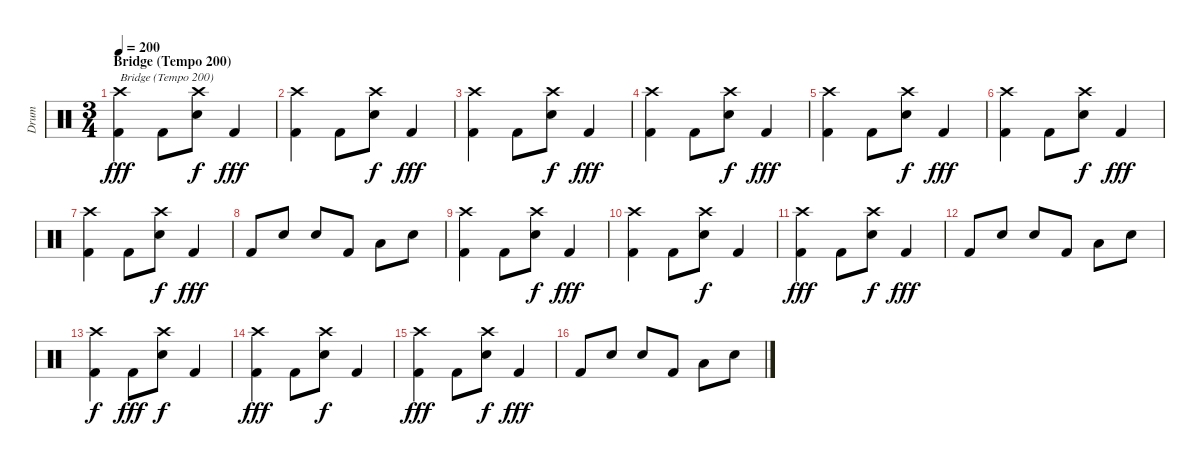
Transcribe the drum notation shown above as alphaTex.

\track ("Drum" "Drum") {instrument percussion}
\staff {score}
\articulation defaults
\ts (3 4)
\section ("" "Bridge (Tempo 200)")
\tempo 200
\clef neutral
\ks c
("Crash high (hit)" "Kick (hit) 2").4{txt "Bridge (Tempo 200)" dy fff} "Kick (hit) 2".8 ("Crash high (hit)" "Snare (hit) 2").8{dy f} "Kick (hit) 2".4{dy fff} |
("Crash high (hit)" "Kick (hit) 2").4 "Kick (hit) 2".8 ("Crash high (hit)" "Snare (hit) 2").8{dy f} "Kick (hit) 2".4{dy fff} |
("Crash high (hit)" "Kick (hit) 2").4 "Kick (hit) 2".8 ("Crash high (hit)" "Snare (hit) 2").8{dy f} "Kick (hit) 2".4{dy fff} |
("Crash high (hit)" "Kick (hit) 2").4 "Kick (hit) 2".8 ("Crash high (hit)" "Snare (hit) 2").8{dy f} "Kick (hit) 2".4{dy fff} |
("Crash high (hit)" "Kick (hit) 2").4 "Kick (hit) 2".8 ("Crash high (hit)" "Snare (hit) 2").8{dy f} "Kick (hit) 2".4{dy fff} |
("Crash high (hit)" "Kick (hit) 2").4 "Kick (hit) 2".8 ("Crash high (hit)" "Snare (hit) 2").8{dy f} "Kick (hit) 2".4{dy fff} |
("Crash high (hit)" "Kick (hit) 2").4 "Kick (hit) 2".8 ("Crash high (hit)" "Snare (hit) 2").8{dy f} "Kick (hit) 2".4{dy fff} |
"Kick (hit) 2".8 "Snare (hit) 2".8 "Snare (hit) 2".8 "Kick (hit) 2".8 "Low Tom (hit)".8 "Snare (hit) 2".8 |
("Crash high (hit)" "Kick (hit) 2").4 "Kick (hit) 2".8 ("Crash high (hit)" "Snare (hit) 2").8{dy f} "Kick (hit) 2".4{dy fff} |
("Crash high (hit)" "Kick (hit) 2").4 "Kick (hit) 2".8 ("Crash high (hit)" "Snare (hit) 2").8{dy f} "Kick (hit) 2".4 |
("Crash high (hit)" "Kick (hit) 2").4{dy fff} "Kick (hit) 2".8 ("Crash high (hit)" "Snare (hit) 2").8{dy f} "Kick (hit) 2".4{dy fff} |
"Kick (hit) 2".8 "Snare (hit) 2".8 "Snare (hit) 2".8 "Kick (hit) 2".8 "Low Tom (hit)".8 "Snare (hit) 2".8 |
("Crash high (hit)" "Kick (hit) 2").4{dy f} "Kick (hit) 2".8{dy fff} ("Crash high (hit)" "Snare (hit) 2").8{dy f} "Kick (hit) 2".4 |
("Crash high (hit)" "Kick (hit) 2").4{dy fff} "Kick (hit) 2".8 ("Crash high (hit)" "Snare (hit) 2").8{dy f} "Kick (hit) 2".4 |
("Crash high (hit)" "Kick (hit) 2").4{dy fff} "Kick (hit) 2".8 ("Crash high (hit)" "Snare (hit) 2").8{dy f} "Kick (hit) 2".4{dy fff} |
"Kick (hit) 2".8 "Snare (hit) 2".8 "Snare (hit) 2".8 "Kick (hit) 2".8 "Low Tom (hit)".8 "Snare (hit) 2".8
